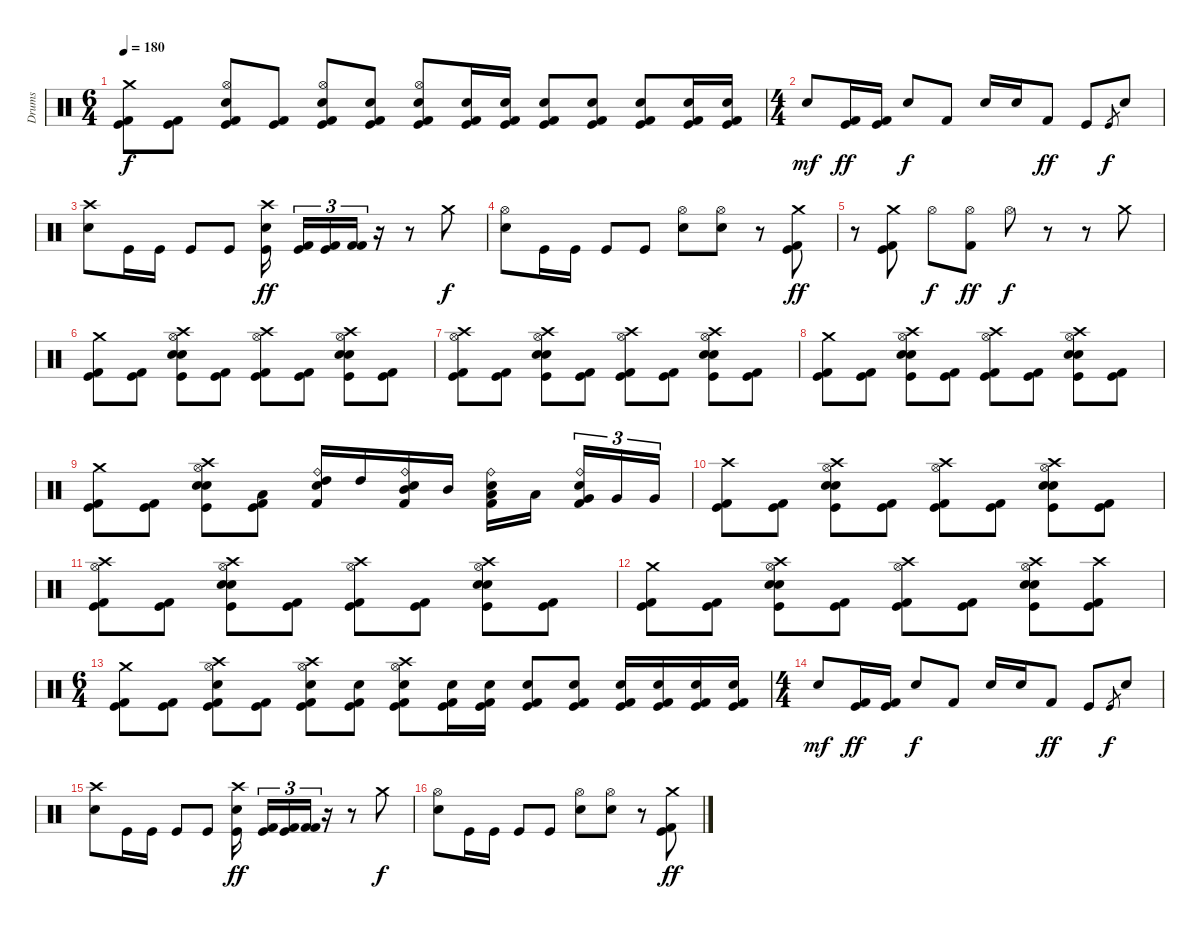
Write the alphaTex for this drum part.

\track ("Drums" "Drums") {instrument percussion}
\staff {score}
\articulation defaults
\ts (6 4)
\tempo 180
\clef neutral
\ks c
("Crash medium (hit)" "Kick (hit) 2" "Kick (hit)").8{dy f} ("Kick (hit) 2" "Kick (hit)").8 ("Hi-Hat (open)" "Kick (hit) 2" "Electric Snare (hit)" "Kick (hit)").8 ("Kick (hit) 2" "Kick (hit)").8 ("Hi-Hat (open)" "Kick (hit) 2" "Electric Snare (hit)" "Kick (hit)").8 ("Kick (hit) 2" "Electric Snare (hit)" "Kick (hit)").8 ("Hi-Hat (open)" "Kick (hit) 2" "Electric Snare (hit)" "Kick (hit)").8 ("Kick (hit) 2" "Electric Snare (hit)" "Kick (hit)").16 ("Kick (hit) 2" "Electric Snare (hit)" "Kick (hit)").16 ("Kick (hit) 2" "Snare (hit) 2" "Kick (hit)").8 ("Kick (hit) 2" "Snare (hit) 2" "Kick (hit)").8 ("Kick (hit) 2" "Snare (hit) 2" "Kick (hit)").8 ("Kick (hit) 2" "Snare (hit) 2" "Kick (hit)").16 ("Kick (hit) 2" "Snare (hit) 2" "Kick (hit)").16 |
\ts (4 4)
"Snare (hit) 2".8{dy mf} ("Kick (hit)" "Kick (hit) 2").16{dy ff} ("Kick (hit)" "Kick (hit) 2").16 "Snare (hit) 2".8{dy f} "Kick (hit) 2".8 "Snare (hit) 2".16 "Snare (hit) 2".16 "Kick (hit) 2".8{dy ff} "Kick (hit)".8 "Kick (hit)".8{gr dy f} "Electric Snare (hit)".8 |
("Crash high (hit)" "Snare (hit) 2").8 "Kick (hit)".16 "Kick (hit)".16 "Kick (hit)".8 "Kick (hit)".8 ("Crash high (hit)" "Snare (hit) 2" "Kick (hit)").16{dy ff} ("Kick (hit) 2" "Kick (hit)").16{tu (3 2)} ("Kick (hit) 2" "Kick (hit)").16{tu (3 2)} ("Kick (hit) 2" "Kick (hit) 2").16{tu (3 2)} r.16 r.8 "Crash medium (hit)".8{dy f} |
("Hi-Hat (open)" "Snare (hit) 2").8 "Kick (hit)".16 "Kick (hit)".16 "Kick (hit)".8 "Kick (hit)".8 ("Hi-Hat (open)" "Snare (hit) 2").8 ("Hi-Hat (open)" "Snare (hit) 2").8 r.8 ("Crash medium (hit)" "Kick (hit) 2" "Kick (hit)").8{dy ff} |
r.8 ("Crash medium (hit)" "Kick (hit) 2" "Kick (hit)").8 "Hi-Hat (open)".8{dy f} ("Hi-Hat (open)" "Kick (hit) 2").8{dy ff} "Hi-Hat (open)".8{dy f} r.8 r.8 "Crash medium (hit)".8 |
("Crash medium (hit)" "Kick (hit) 2" "Kick (hit)").8 ("Kick (hit) 2" "Kick (hit)").8 ("Crash high (hit)" "Hi-Hat (open)" "Snare (hit) 2" "Electric Snare (hit)" "Kick (hit)").8 ("Kick (hit) 2" "Kick (hit)").8 ("Crash high (hit)" "Hi-Hat (open)" "Kick (hit) 2" "Kick (hit)").8 ("Kick (hit) 2" "Kick (hit)").8 ("Crash high (hit)" "Hi-Hat (open)" "Snare (hit) 2" "Electric Snare (hit)" "Kick (hit)").8 ("Kick (hit) 2" "Kick (hit)").8 |
("Crash high (hit)" "Hi-Hat (open)" "Kick (hit) 2" "Kick (hit)").8 ("Kick (hit) 2" "Kick (hit)").8 ("Crash high (hit)" "Hi-Hat (open)" "Snare (hit) 2" "Electric Snare (hit)" "Kick (hit)").8 ("Kick (hit) 2" "Kick (hit)").8 ("Crash high (hit)" "Hi-Hat (open)" "Kick (hit) 2" "Kick (hit)").8 ("Kick (hit) 2" "Kick (hit)").8 ("Crash high (hit)" "Hi-Hat (open)" "Snare (hit) 2" "Electric Snare (hit)" "Kick (hit)").8 ("Kick (hit) 2" "Kick (hit)").8 |
("Crash medium (hit)" "Kick (hit) 2" "Kick (hit)").8 ("Kick (hit) 2" "Kick (hit)").8 ("Crash high (hit)" "Hi-Hat (open)" "Snare (hit) 2" "Electric Snare (hit)" "Kick (hit)").8 ("Kick (hit) 2" "Kick (hit)").8 ("Crash high (hit)" "Hi-Hat (open)" "Kick (hit) 2" "Kick (hit)").8 ("Kick (hit) 2" "Kick (hit)").8 ("Crash high (hit)" "Hi-Hat (open)" "Snare (hit) 2" "Electric Snare (hit)" "Kick (hit)").8 ("Kick (hit) 2" "Kick (hit)").8 |
("Crash medium (hit)" "Kick (hit) 2" "Kick (hit)").8 ("Kick (hit) 2" "Kick (hit)").8 ("Crash high (hit)" "Hi-Hat (open)" "Snare (hit) 2" "Electric Snare (hit)" "Kick (hit)").8 ("Kick (hit) 2" "Low Tom (hit)" "Kick (hit)").8 ("Ride (bell)" "Snare (hit) 2" "High Tom (hit)" "Kick (hit) 2").16 "High Tom (hit)".16 ("Ride (bell)" "Snare (hit) 2" "Mid Tom (hit)" "Kick (hit) 2").16 "Mid Tom (hit)".16 ("Ride (bell)" "Snare (hit) 2" "Low Tom (hit)" "Kick (hit) 2").16 "Low Tom (hit)".16 ("Ride (bell)" "Snare (hit) 2" "Very Low Tom (hit)" "Kick (hit) 2").16{tu (3 2)} "Very Low Tom (hit)".16{tu (3 2)} "Very Low Tom (hit)".16{tu (3 2)} |
("Crash high (hit)" "Kick (hit) 2" "Kick (hit)").8 ("Kick (hit) 2" "Kick (hit)").8 ("Crash high (hit)" "Hi-Hat (open)" "Snare (hit) 2" "Electric Snare (hit)" "Kick (hit)").8 ("Kick (hit) 2" "Kick (hit)").8 ("Crash high (hit)" "Hi-Hat (open)" "Kick (hit) 2" "Kick (hit)").8 ("Kick (hit) 2" "Kick (hit)").8 ("Crash high (hit)" "Hi-Hat (open)" "Snare (hit) 2" "Electric Snare (hit)" "Kick (hit)").8 ("Kick (hit) 2" "Kick (hit)").8 |
("Crash high (hit)" "Hi-Hat (open)" "Kick (hit) 2" "Kick (hit)").8 ("Kick (hit) 2" "Kick (hit)").8 ("Crash high (hit)" "Hi-Hat (open)" "Snare (hit) 2" "Electric Snare (hit)" "Kick (hit)").8 ("Kick (hit) 2" "Kick (hit)").8 ("Crash high (hit)" "Hi-Hat (open)" "Kick (hit) 2" "Kick (hit)").8 ("Kick (hit) 2" "Kick (hit)").8 ("Crash high (hit)" "Hi-Hat (open)" "Snare (hit) 2" "Electric Snare (hit)" "Kick (hit)").8 ("Kick (hit) 2" "Kick (hit)").8 |
("Crash medium (hit)" "Kick (hit) 2" "Kick (hit)").8 ("Kick (hit) 2" "Kick (hit)").8 ("Crash high (hit)" "Hi-Hat (open)" "Snare (hit) 2" "Electric Snare (hit)" "Kick (hit)").8 ("Kick (hit) 2" "Kick (hit)").8 ("Crash high (hit)" "Hi-Hat (open)" "Kick (hit) 2" "Kick (hit)").8 ("Kick (hit) 2" "Kick (hit)").8 ("Crash high (hit)" "Hi-Hat (open)" "Snare (hit) 2" "Electric Snare (hit)" "Kick (hit)").8 ("Crash high (hit)" "Kick (hit) 2" "Kick (hit)").8 |
\ts (6 4)
("Crash medium (hit)" "Kick (hit) 2" "Kick (hit)").8 ("Kick (hit) 2" "Kick (hit)").8 ("Crash high (hit)" "Hi-Hat (open)" "Kick (hit) 2" "Electric Snare (hit)" "Kick (hit)").8 ("Kick (hit) 2" "Kick (hit)").8 ("Crash high (hit)" "Hi-Hat (open)" "Kick (hit) 2" "Electric Snare (hit)" "Kick (hit)").8 ("Kick (hit) 2" "Electric Snare (hit)" "Kick (hit)").8 ("Crash high (hit)" "Hi-Hat (open)" "Kick (hit) 2" "Electric Snare (hit)" "Kick (hit)").8 ("Kick (hit) 2" "Electric Snare (hit)" "Kick (hit)").16 ("Kick (hit) 2" "Electric Snare (hit)" "Kick (hit)").16 ("Kick (hit) 2" "Snare (hit) 2" "Kick (hit)").8 ("Kick (hit) 2" "Snare (hit) 2" "Kick (hit)").8 ("Kick (hit) 2" "Snare (hit) 2" "Kick (hit)").16 ("Kick (hit) 2" "Snare (hit) 2" "Kick (hit)").16 ("Kick (hit) 2" "Snare (hit) 2" "Kick (hit)").16 ("Kick (hit) 2" "Snare (hit) 2" "Kick (hit)").16 |
\ts (4 4)
"Snare (hit) 2".8{dy mf} ("Kick (hit)" "Kick (hit) 2").16{dy ff} ("Kick (hit)" "Kick (hit) 2").16 "Snare (hit) 2".8{dy f} "Kick (hit) 2".8 "Snare (hit) 2".16 "Snare (hit) 2".16 "Kick (hit) 2".8{dy ff} "Kick (hit)".8 "Kick (hit)".8{gr dy f} "Electric Snare (hit)".8 |
("Crash high (hit)" "Snare (hit) 2").8 "Kick (hit)".16 "Kick (hit)".16 "Kick (hit)".8 "Kick (hit)".8 ("Crash high (hit)" "Snare (hit) 2" "Kick (hit)").16{dy ff} ("Kick (hit) 2" "Kick (hit)").16{tu (3 2)} ("Kick (hit) 2" "Kick (hit)").16{tu (3 2)} ("Kick (hit) 2" "Kick (hit) 2").16{tu (3 2)} r.16 r.8 "Crash medium (hit)".8{dy f} |
("Hi-Hat (open)" "Snare (hit) 2").8 "Kick (hit)".16 "Kick (hit)".16 "Kick (hit)".8 "Kick (hit)".8 ("Hi-Hat (open)" "Snare (hit) 2").8 ("Hi-Hat (open)" "Snare (hit) 2").8 r.8 ("Crash medium (hit)" "Kick (hit) 2" "Kick (hit)").8{dy ff}
